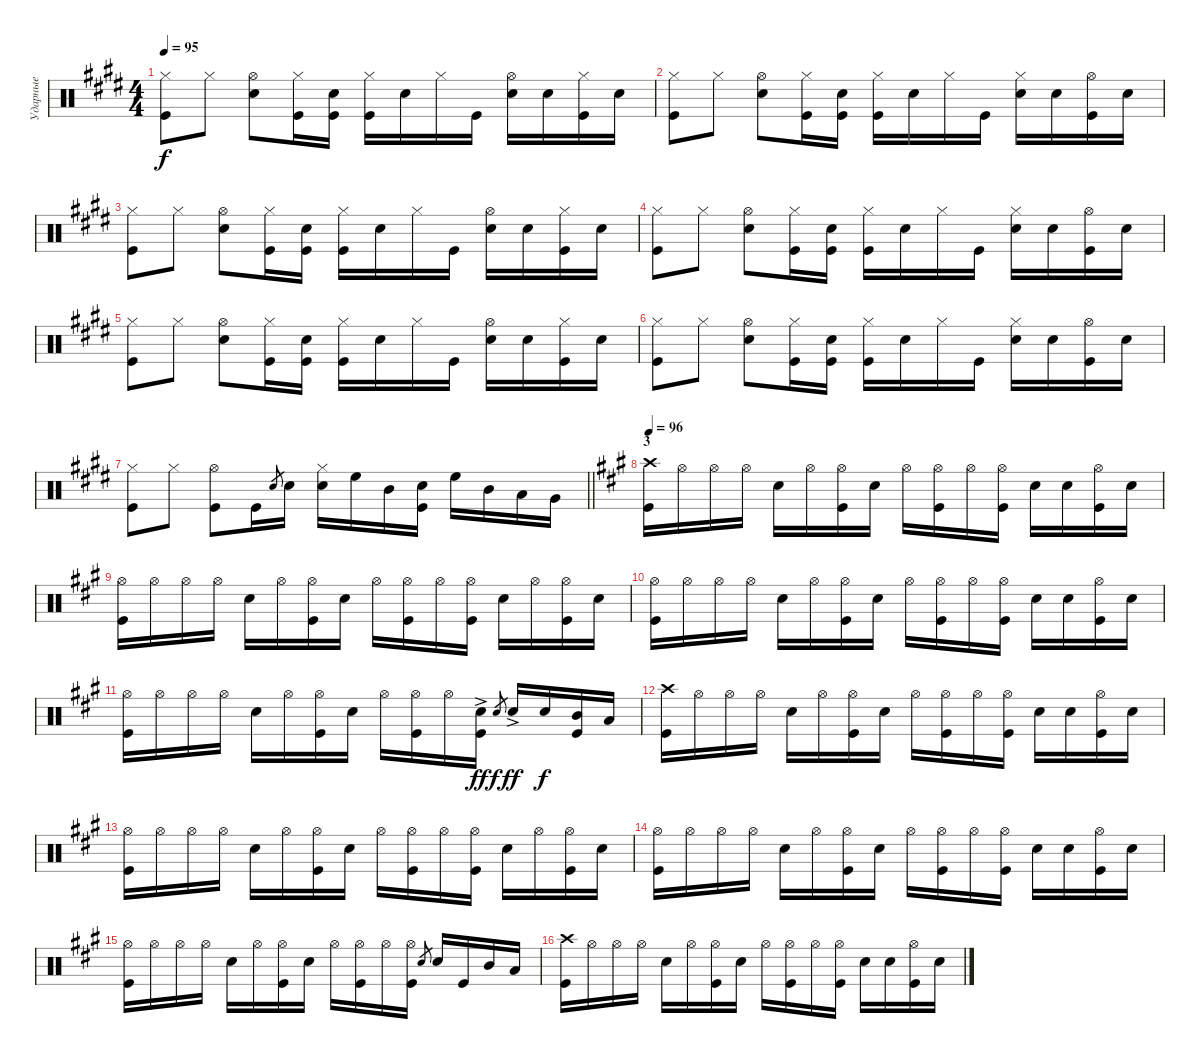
\track ("Ударные" "Ударные") {instrument percussion}
\staff {score}
\articulation defaults
\ts (4 4)
\tempo 95
\clef neutral
\ks c#minor
("Hi-Hat (closed)" "Kick (hit)").8{dy f} "Hi-Hat (closed)".8 ("Hi-Hat (open)" "Snare (hit) 2").8 ("Hi-Hat (closed)" "Kick (hit)").16 ("Kick (hit)" "Snare (hit) 2").16 ("Hi-Hat (closed)" "Kick (hit)").16 "Snare (hit) 2".16 "Hi-Hat (closed)".16 "Kick (hit)".16 ("Hi-Hat (open)" "Snare (hit) 2").16 "Snare (hit) 2".16 ("Hi-Hat (closed)" "Kick (hit)").16 "Snare (hit) 2".16 |
("Hi-Hat (closed)" "Kick (hit)").8 "Hi-Hat (closed)".8 ("Hi-Hat (open)" "Snare (hit) 2").8 ("Hi-Hat (closed)" "Kick (hit)").16 ("Kick (hit)" "Snare (hit) 2").16 ("Hi-Hat (closed)" "Kick (hit)").16 "Snare (hit) 2".16 "Hi-Hat (closed)".16 "Kick (hit)".16 ("Hi-Hat (closed)" "Snare (hit) 2").16 "Snare (hit) 2".16 ("Hi-Hat (open)" "Kick (hit)").16 "Snare (hit) 2".16 |
("Hi-Hat (closed)" "Kick (hit)").8 "Hi-Hat (closed)".8 ("Hi-Hat (open)" "Snare (hit) 2").8 ("Hi-Hat (closed)" "Kick (hit)").16 ("Kick (hit)" "Snare (hit) 2").16 ("Hi-Hat (closed)" "Kick (hit)").16 "Snare (hit) 2".16 "Hi-Hat (closed)".16 "Kick (hit)".16 ("Hi-Hat (open)" "Snare (hit) 2").16 "Snare (hit) 2".16 ("Hi-Hat (closed)" "Kick (hit)").16 "Snare (hit) 2".16 |
("Hi-Hat (closed)" "Kick (hit)").8 "Hi-Hat (closed)".8 ("Hi-Hat (open)" "Snare (hit) 2").8 ("Hi-Hat (closed)" "Kick (hit)").16 ("Kick (hit)" "Snare (hit) 2").16 ("Hi-Hat (closed)" "Kick (hit)").16 "Snare (hit) 2".16 "Hi-Hat (closed)".16 "Kick (hit)".16 ("Hi-Hat (closed)" "Snare (hit) 2").16 "Snare (hit) 2".16 ("Hi-Hat (open)" "Kick (hit)").16 "Snare (hit) 2".16 |
("Hi-Hat (closed)" "Kick (hit)").8 "Hi-Hat (closed)".8 ("Hi-Hat (open)" "Snare (hit) 2").8 ("Hi-Hat (closed)" "Kick (hit)").16 ("Kick (hit)" "Snare (hit) 2").16 ("Hi-Hat (closed)" "Kick (hit)").16 "Snare (hit) 2".16 "Hi-Hat (closed)".16 "Kick (hit)".16 ("Hi-Hat (open)" "Snare (hit) 2").16 "Snare (hit) 2".16 ("Hi-Hat (closed)" "Kick (hit)").16 "Snare (hit) 2".16 |
("Hi-Hat (closed)" "Kick (hit)").8 "Hi-Hat (closed)".8 ("Hi-Hat (open)" "Snare (hit) 2").8 ("Hi-Hat (closed)" "Kick (hit)").16 ("Kick (hit)" "Snare (hit) 2").16 ("Hi-Hat (closed)" "Kick (hit)").16 "Snare (hit) 2".16 "Hi-Hat (closed)".16 "Kick (hit)".16 ("Hi-Hat (closed)" "Snare (hit) 2").16 "Snare (hit) 2".16 ("Hi-Hat (open)" "Kick (hit)").16 "Snare (hit) 2".16 |
\barLineRight lightlight
("Hi-Hat (closed)" "Kick (hit)").8 "Hi-Hat (closed)".8 ("Kick (hit)" "Hi-Hat (open)").8 "Kick (hit)".16 "Snare (hit) 2".8{gr} "Snare (hit) 2".16 ("Hi-Hat (closed)" "Snare (hit) 2").16 "High Floor Tom (hit)".16 "Mid Tom (hit)".16 ("Snare (hit) 2" "Kick (hit)").16 "High Floor Tom (hit)".16 "Mid Tom (hit)".16 "Low Tom (hit)".16 "Very Low Tom (hit)".16 |
\section ("" "3")
\tempo 96
\ks f#minor
("Crash high (hit)" "Kick (hit)").16 "Hi-Hat (open)".16 "Hi-Hat (open)".16 "Hi-Hat (open)".16 "Snare (hit) 2".16 "Hi-Hat (open)".16 ("Kick (hit)" "Hi-Hat (open)").16 "Snare (hit) 2".16 "Hi-Hat (open)".16 ("Hi-Hat (open)" "Kick (hit)").16 "Hi-Hat (open)".16 ("Hi-Hat (open)" "Kick (hit)").16 "Snare (hit) 2".16 "Snare (hit) 2".16 ("Kick (hit)" "Hi-Hat (open)").16 "Snare (hit) 2".16 |
("Hi-Hat (open)" "Kick (hit)").16 "Hi-Hat (open)".16 "Hi-Hat (open)".16 "Hi-Hat (open)".16 "Snare (hit) 2".16 "Hi-Hat (open)".16 ("Kick (hit)" "Hi-Hat (open)").16 "Snare (hit) 2".16 "Hi-Hat (open)".16 ("Hi-Hat (open)" "Kick (hit)").16 "Hi-Hat (open)".16 ("Hi-Hat (open)" "Kick (hit)").16 "Snare (hit) 2".16 "Hi-Hat (open)".16 ("Kick (hit)" "Hi-Hat (open)").16 "Snare (hit) 2".16 |
("Hi-Hat (open)" "Kick (hit)").16 "Hi-Hat (open)".16 "Hi-Hat (open)".16 "Hi-Hat (open)".16 "Snare (hit) 2".16 "Hi-Hat (open)".16 ("Kick (hit)" "Hi-Hat (open)").16 "Snare (hit) 2".16 "Hi-Hat (open)".16 ("Hi-Hat (open)" "Kick (hit)").16 "Hi-Hat (open)".16 ("Hi-Hat (open)" "Kick (hit)").16 "Snare (hit) 2".16 "Snare (hit) 2".16 ("Kick (hit)" "Hi-Hat (open)").16 "Snare (hit) 2".16 |
("Hi-Hat (open)" "Kick (hit)").16 "Hi-Hat (open)".16 "Hi-Hat (open)".16 "Hi-Hat (open)".16 "Snare (hit) 2".16 "Hi-Hat (open)".16 ("Kick (hit)" "Hi-Hat (open)").16 "Snare (hit) 2".16 "Hi-Hat (open)".16 ("Hi-Hat (open)" "Kick (hit)").16 "Hi-Hat (open)".16 ("Kick (hit)" "Snare (hit) 2"{ac}).16{dy ff} "Snare (hit) 2".8{gr dy f} "Snare (hit) 2"{ac}.16{dy ff} "Snare (hit) 2".16{dy f} ("Kick (hit)" "Mid Tom (hit)").16 "Low Tom (hit)".16 |
("Crash high (hit)" "Kick (hit)").16 "Hi-Hat (open)".16 "Hi-Hat (open)".16 "Hi-Hat (open)".16 "Snare (hit) 2".16 "Hi-Hat (open)".16 ("Kick (hit)" "Hi-Hat (open)").16 "Snare (hit) 2".16 "Hi-Hat (open)".16 ("Hi-Hat (open)" "Kick (hit)").16 "Hi-Hat (open)".16 ("Hi-Hat (open)" "Kick (hit)").16 "Snare (hit) 2".16 "Snare (hit) 2".16 ("Kick (hit)" "Hi-Hat (open)").16 "Snare (hit) 2".16 |
("Hi-Hat (open)" "Kick (hit)").16 "Hi-Hat (open)".16 "Hi-Hat (open)".16 "Hi-Hat (open)".16 "Snare (hit) 2".16 "Hi-Hat (open)".16 ("Kick (hit)" "Hi-Hat (open)").16 "Snare (hit) 2".16 "Hi-Hat (open)".16 ("Hi-Hat (open)" "Kick (hit)").16 "Hi-Hat (open)".16 ("Hi-Hat (open)" "Kick (hit)").16 "Snare (hit) 2".16 "Hi-Hat (open)".16 ("Kick (hit)" "Hi-Hat (open)").16 "Snare (hit) 2".16 |
("Hi-Hat (open)" "Kick (hit)").16 "Hi-Hat (open)".16 "Hi-Hat (open)".16 "Hi-Hat (open)".16 "Snare (hit) 2".16 "Hi-Hat (open)".16 ("Kick (hit)" "Hi-Hat (open)").16 "Snare (hit) 2".16 "Hi-Hat (open)".16 ("Hi-Hat (open)" "Kick (hit)").16 "Hi-Hat (open)".16 ("Hi-Hat (open)" "Kick (hit)").16 "Snare (hit) 2".16 "Snare (hit) 2".16 ("Kick (hit)" "Hi-Hat (open)").16 "Snare (hit) 2".16 |
("Hi-Hat (open)" "Kick (hit)").16 "Hi-Hat (open)".16 "Hi-Hat (open)".16 "Hi-Hat (open)".16 "Snare (hit) 2".16 "Hi-Hat (open)".16 ("Kick (hit)" "Hi-Hat (open)").16 "Snare (hit) 2".16 "Hi-Hat (open)".16 ("Hi-Hat (open)" "Kick (hit)").16 "Hi-Hat (open)".16 ("Hi-Hat (open)" "Kick (hit)").16 "Snare (hit) 2".8{gr} "Snare (hit) 2".16 "Kick (hit)".16 "Mid Tom (hit)".16 "Low Tom (hit)".16 |
("Crash high (hit)" "Kick (hit)").16 "Hi-Hat (open)".16 "Hi-Hat (open)".16 "Hi-Hat (open)".16 "Snare (hit) 2".16 "Hi-Hat (open)".16 ("Kick (hit)" "Hi-Hat (open)").16 "Snare (hit) 2".16 "Hi-Hat (open)".16 ("Hi-Hat (open)" "Kick (hit)").16 "Hi-Hat (open)".16 ("Hi-Hat (open)" "Kick (hit)").16 "Snare (hit) 2".16 "Snare (hit) 2".16 ("Kick (hit)" "Hi-Hat (open)").16 "Snare (hit) 2".16
